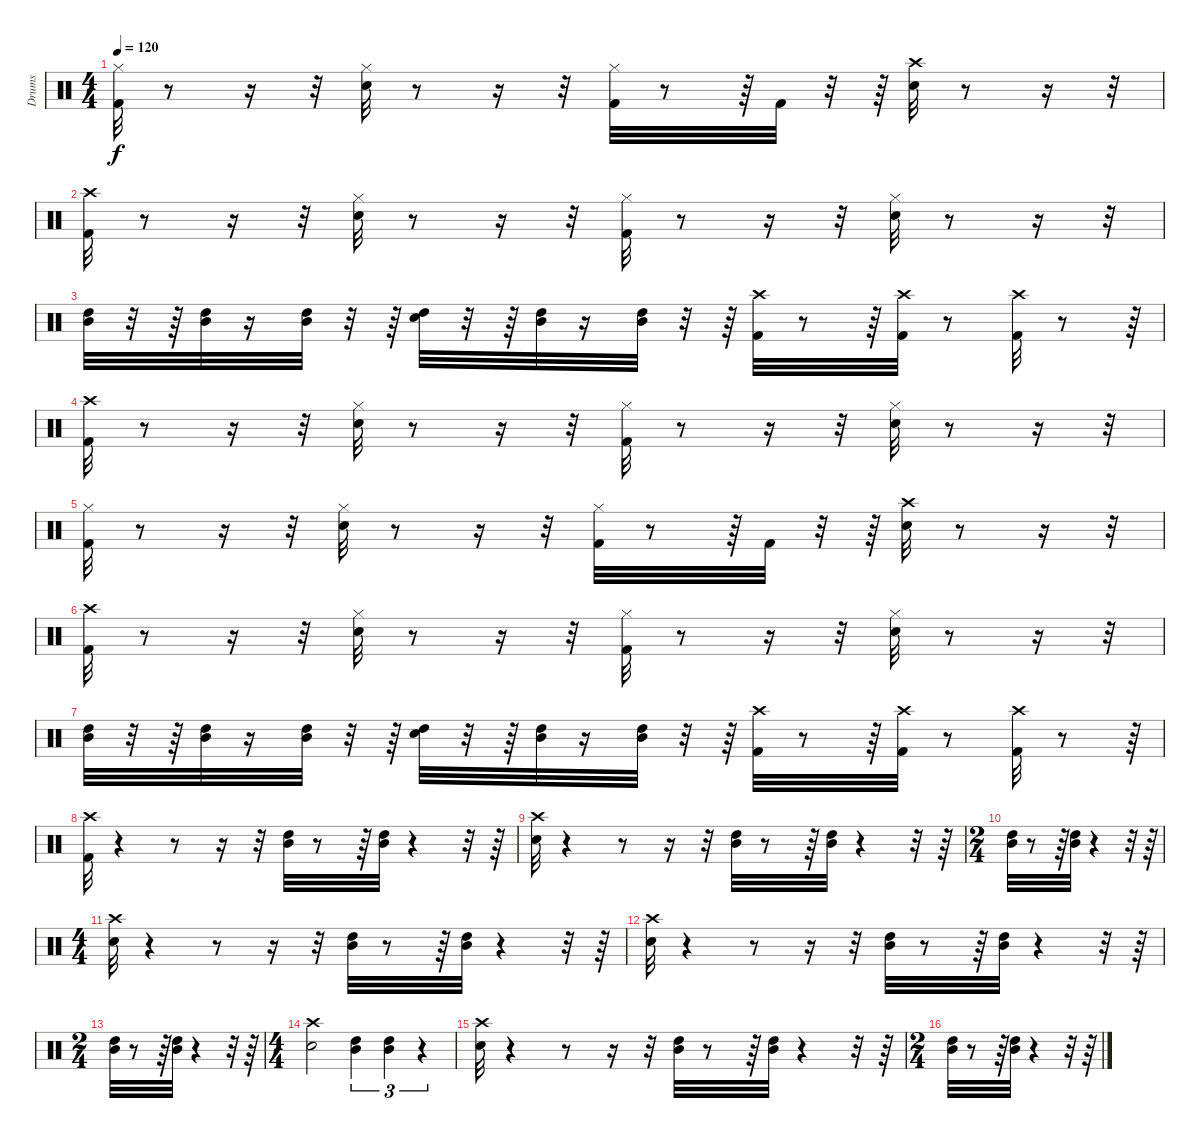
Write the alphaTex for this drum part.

\track ("Drums" "Drums") {instrument percussion}
\staff {score}
\articulation defaults
\ts (4 4)
\tempo 120
\clef neutral
\ks c
("Hi-Hat (closed)" "Kick (hit) 2").32{dy f} r.8 r.16 r.32 ("Snare (hit) 2" "Hi-Hat (closed)").32 r.8 r.16 r.32 ("Kick (hit) 2" "Hi-Hat (closed)").32 r.8 r.64 "Kick (hit) 2".32 r.32 r.64 ("Snare (hit) 2" "Crash high (hit)").32 r.8 r.16 r.32 |
("Crash high (hit)" "Kick (hit) 2").32 r.8 r.16 r.32 ("Snare (hit) 2" "Hi-Hat (closed)").32 r.8 r.16 r.32 ("Hi-Hat (closed)" "Kick (hit) 2").32 r.8 r.16 r.32 ("Snare (hit) 2" "Hi-Hat (closed)").32 r.8 r.16 r.32 |
("High Tom (hit)" "Mid Tom (hit)").32 r.32 r.64 ("High Tom (hit)" "Mid Tom (hit)").32 r.16 ("High Tom (hit)" "Mid Tom (hit)").32 r.32 r.64 ("Snare (hit) 2" "High Tom (hit)").32 r.32 r.64 ("High Tom (hit)" "Mid Tom (hit)").32 r.16 ("High Tom (hit)" "Mid Tom (hit)").32 r.32 r.64 ("Kick (hit) 2" "Crash high (hit)").32 r.8 r.64 ("Kick (hit) 2" "Crash high (hit)").32 r.8 ("Kick (hit) 2" "Crash high (hit)").32 r.8 r.64 |
("Kick (hit) 2" "Crash high (hit)").32 r.8 r.16 r.32 ("Snare (hit) 2" "Hi-Hat (closed)").32 r.8 r.16 r.32 ("Kick (hit) 2" "Hi-Hat (closed)").32 r.8 r.16 r.32 ("Snare (hit) 2" "Hi-Hat (closed)").32 r.8 r.16 r.32 |
("Kick (hit) 2" "Hi-Hat (closed)").32 r.8 r.16 r.32 ("Snare (hit) 2" "Hi-Hat (closed)").32 r.8 r.16 r.32 ("Kick (hit) 2" "Hi-Hat (closed)").32 r.8 r.64 "Kick (hit) 2".32 r.32 r.64 ("Snare (hit) 2" "Crash high (hit)").32 r.8 r.16 r.32 |
("Crash high (hit)" "Kick (hit) 2").32 r.8 r.16 r.32 ("Snare (hit) 2" "Hi-Hat (closed)").32 r.8 r.16 r.32 ("Hi-Hat (closed)" "Kick (hit) 2").32 r.8 r.16 r.32 ("Snare (hit) 2" "Hi-Hat (closed)").32 r.8 r.16 r.32 |
("High Tom (hit)" "Mid Tom (hit)").32 r.32 r.64 ("High Tom (hit)" "Mid Tom (hit)").32 r.16 ("High Tom (hit)" "Mid Tom (hit)").32 r.32 r.64 ("Snare (hit) 2" "High Tom (hit)").32 r.32 r.64 ("High Tom (hit)" "Mid Tom (hit)").32 r.16 ("High Tom (hit)" "Mid Tom (hit)").32 r.32 r.64 ("Kick (hit) 2" "Crash high (hit)").32 r.8 r.64 ("Kick (hit) 2" "Crash high (hit)").32 r.8 ("Kick (hit) 2" "Crash high (hit)").32 r.8 r.64 |
("Kick (hit) 2" "Crash high (hit)").32 r.4 r.8 r.16 r.32 ("Mid Tom (hit)" "High Tom (hit)").32 r.8 r.64 ("High Tom (hit)" "Mid Tom (hit)").32 r.4 r.32 r.64 |
("Snare (hit) 2" "Crash high (hit)").32 r.4 r.8 r.16 r.32 ("Mid Tom (hit)" "High Tom (hit)").32 r.8 r.64 ("Mid Tom (hit)" "High Tom (hit)").32 r.4 r.32 r.64 |
\ts (2 4)
("Mid Tom (hit)" "High Tom (hit)").32 r.8 r.64 ("Mid Tom (hit)" "High Tom (hit)").32 r.4 r.32 r.64 |
\ts (4 4)
("Snare (hit) 2" "Crash high (hit)").32 r.4 r.8 r.16 r.32 ("Mid Tom (hit)" "High Tom (hit)").32 r.8 r.64 ("Mid Tom (hit)" "High Tom (hit)").32 r.4 r.32 r.64 |
("Snare (hit) 2" "Crash high (hit)").32 r.4 r.8 r.16 r.32 ("Mid Tom (hit)" "High Tom (hit)").32 r.8 r.64 ("Mid Tom (hit)" "High Tom (hit)").32 r.4 r.32 r.64 |
\ts (2 4)
("Mid Tom (hit)" "High Tom (hit)").32 r.8 r.64 ("Mid Tom (hit)" "High Tom (hit)").32 r.4 r.32 r.64 |
\ts (4 4)
("Snare (hit) 2" "Crash high (hit)").2 ("Mid Tom (hit)" "High Tom (hit)").4{tu (3 2)} ("Mid Tom (hit)" "High Tom (hit)").4{tu (3 2)} r.4{tu (3 2)} |
("Snare (hit) 2" "Crash high (hit)").32 r.4 r.8 r.16 r.32 ("Mid Tom (hit)" "High Tom (hit)").32 r.8 r.64 ("Mid Tom (hit)" "High Tom (hit)").32 r.4 r.32 r.64 |
\ts (2 4)
("Mid Tom (hit)" "High Tom (hit)").32 r.8 r.64 ("Mid Tom (hit)" "High Tom (hit)").32 r.4 r.32 r.64
